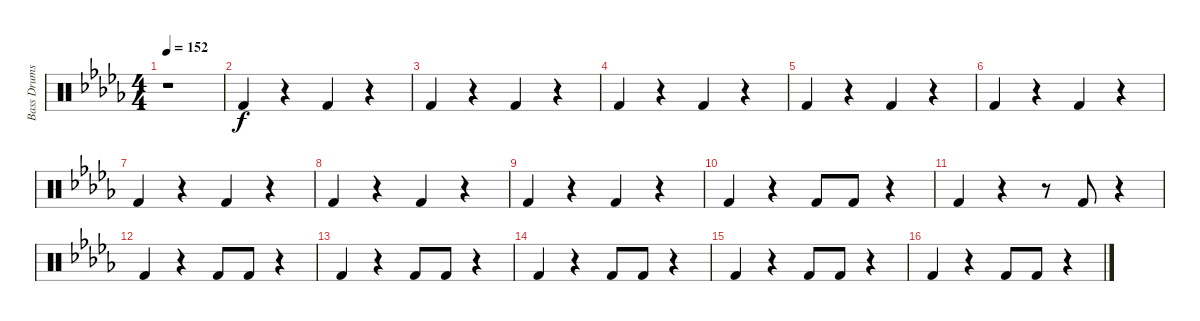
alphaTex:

\track ("Bass Drums" "Bass Drums") {instrument percussion}
\staff {score}
\articulation defaults
\ts (4 4)
\tempo 152
\clef neutral
\ks db
r.1{dy f} |
"Kick (hit) 2".4 r.4 "Kick (hit) 2".4 r.4 |
"Kick (hit) 2".4 r.4 "Kick (hit) 2".4 r.4 |
"Kick (hit) 2".4 r.4 "Kick (hit) 2".4 r.4 |
"Kick (hit) 2".4 r.4 "Kick (hit) 2".4 r.4 |
"Kick (hit) 2".4 r.4 "Kick (hit) 2".4 r.4 |
"Kick (hit) 2".4 r.4 "Kick (hit) 2".4 r.4 |
"Kick (hit) 2".4 r.4 "Kick (hit) 2".4 r.4 |
"Kick (hit) 2".4 r.4 "Kick (hit) 2".4 r.4 |
"Kick (hit) 2".4 r.4 "Kick (hit) 2".8 "Kick (hit) 2".8 r.4 |
"Kick (hit) 2".4 r.4 r.8 "Kick (hit) 2".8 r.4 |
"Kick (hit) 2".4 r.4 "Kick (hit) 2".8 "Kick (hit) 2".8 r.4 |
"Kick (hit) 2".4 r.4 "Kick (hit) 2".8 "Kick (hit) 2".8 r.4 |
"Kick (hit) 2".4 r.4 "Kick (hit) 2".8 "Kick (hit) 2".8 r.4 |
"Kick (hit) 2".4 r.4 "Kick (hit) 2".8 "Kick (hit) 2".8 r.4 |
"Kick (hit) 2".4 r.4 "Kick (hit) 2".8 "Kick (hit) 2".8 r.4
